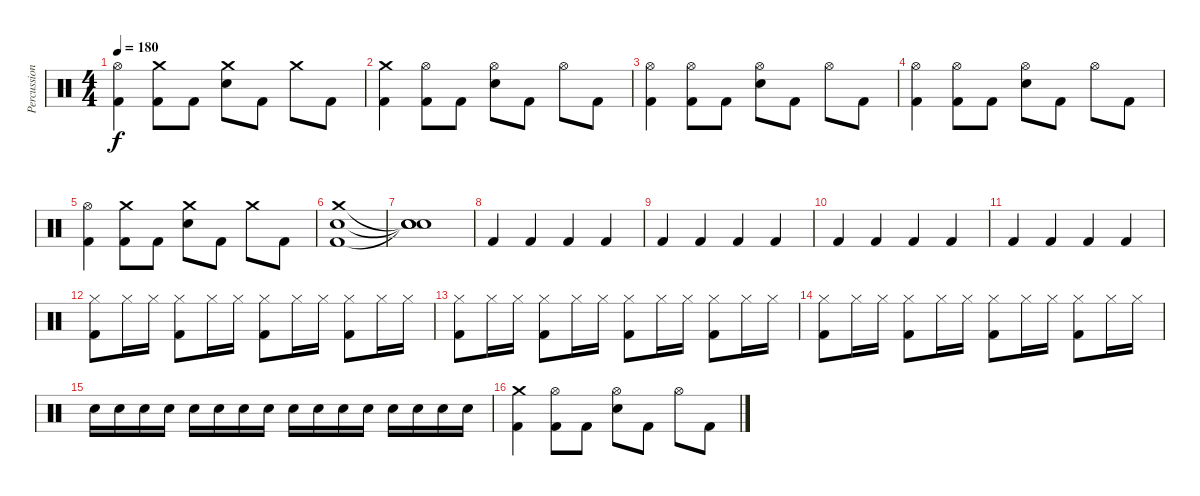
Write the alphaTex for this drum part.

\track ("Percussion" "Percussion") {instrument percussion}
\staff {score}
\articulation defaults
\ts (4 4)
\tempo 180
\clef neutral
\ks c
("Hi-Hat (open)" "Kick (hit) 2").4{dy f} ("Crash medium (hit)" "Kick (hit) 2").8 "Kick (hit) 2".8 ("Crash medium (hit)" "Electric Snare (hit)").8 "Kick (hit) 2".8 "Crash medium (hit)".8 "Kick (hit) 2".8 |
("Crash medium (hit)" "Kick (hit) 2").4 ("Hi-Hat (open)" "Kick (hit) 2").8 "Kick (hit) 2".8 ("Hi-Hat (open)" "Electric Snare (hit)").8 "Kick (hit) 2".8 "Hi-Hat (open)".8 "Kick (hit) 2".8 |
("Hi-Hat (open)" "Kick (hit) 2").4 ("Hi-Hat (open)" "Kick (hit) 2").8 "Kick (hit) 2".8 ("Hi-Hat (open)" "Electric Snare (hit)").8 "Kick (hit) 2".8 "Hi-Hat (open)".8 "Kick (hit) 2".8 |
("Hi-Hat (open)" "Kick (hit) 2").4 ("Hi-Hat (open)" "Kick (hit) 2").8 "Kick (hit) 2".8 ("Hi-Hat (open)" "Electric Snare (hit)").8 "Kick (hit) 2".8 "Hi-Hat (open)".8 "Kick (hit) 2".8 |
("Hi-Hat (open)" "Kick (hit) 2").4 ("Crash medium (hit)" "Kick (hit) 2").8 "Kick (hit) 2".8 ("Crash medium (hit)" "Electric Snare (hit)").8 "Kick (hit) 2".8 "Crash medium (hit)".8 "Kick (hit) 2".8 |
("Crash medium (hit)" "Electric Snare (hit)" "Kick (hit) 2").1 |
("Snare (hit)"{t} "Snare (hit)"{t} "Snare (hit)"{t}).1 |
"Kick (hit) 2".4 "Kick (hit) 2".4 "Kick (hit) 2".4 "Kick (hit) 2".4 |
"Kick (hit) 2".4 "Kick (hit) 2".4 "Kick (hit) 2".4 "Kick (hit) 2".4 |
"Kick (hit) 2".4 "Kick (hit) 2".4 "Kick (hit) 2".4 "Kick (hit) 2".4 |
"Kick (hit) 2".4 "Kick (hit) 2".4 "Kick (hit) 2".4 "Kick (hit) 2".4 |
("Hi-Hat (closed)" "Kick (hit) 2").8 "Hi-Hat (closed)".16 "Hi-Hat (closed)".16 ("Hi-Hat (closed)" "Kick (hit) 2").8 "Hi-Hat (closed)".16 "Hi-Hat (closed)".16 ("Hi-Hat (closed)" "Kick (hit) 2").8 "Hi-Hat (closed)".16 "Hi-Hat (closed)".16 ("Hi-Hat (closed)" "Kick (hit) 2").8 "Hi-Hat (closed)".16 "Hi-Hat (closed)".16 |
("Hi-Hat (closed)" "Kick (hit) 2").8 "Hi-Hat (closed)".16 "Hi-Hat (closed)".16 ("Hi-Hat (closed)" "Kick (hit) 2").8 "Hi-Hat (closed)".16 "Hi-Hat (closed)".16 ("Hi-Hat (closed)" "Kick (hit) 2").8 "Hi-Hat (closed)".16 "Hi-Hat (closed)".16 ("Hi-Hat (closed)" "Kick (hit) 2").8 "Hi-Hat (closed)".16 "Hi-Hat (closed)".16 |
("Hi-Hat (closed)" "Kick (hit) 2").8 "Hi-Hat (closed)".16 "Hi-Hat (closed)".16 ("Hi-Hat (closed)" "Kick (hit) 2").8 "Hi-Hat (closed)".16 "Hi-Hat (closed)".16 ("Hi-Hat (closed)" "Kick (hit) 2").8 "Hi-Hat (closed)".16 "Hi-Hat (closed)".16 ("Hi-Hat (closed)" "Kick (hit) 2").8 "Hi-Hat (closed)".16 "Hi-Hat (closed)".16 |
"Electric Snare (hit)".16 "Electric Snare (hit)".16 "Electric Snare (hit)".16 "Electric Snare (hit)".16 "Electric Snare (hit)".16 "Electric Snare (hit)".16 "Electric Snare (hit)".16 "Electric Snare (hit)".16 "Electric Snare (hit)".16 "Electric Snare (hit)".16 "Electric Snare (hit)".16 "Electric Snare (hit)".16 "Electric Snare (hit)".16 "Electric Snare (hit)".16 "Electric Snare (hit)".16 "Electric Snare (hit)".16 |
("Crash medium (hit)" "Kick (hit) 2").4 ("Hi-Hat (open)" "Kick (hit) 2").8 "Kick (hit) 2".8 ("Hi-Hat (open)" "Electric Snare (hit)").8 "Kick (hit) 2".8 "Hi-Hat (open)".8 "Kick (hit) 2".8
